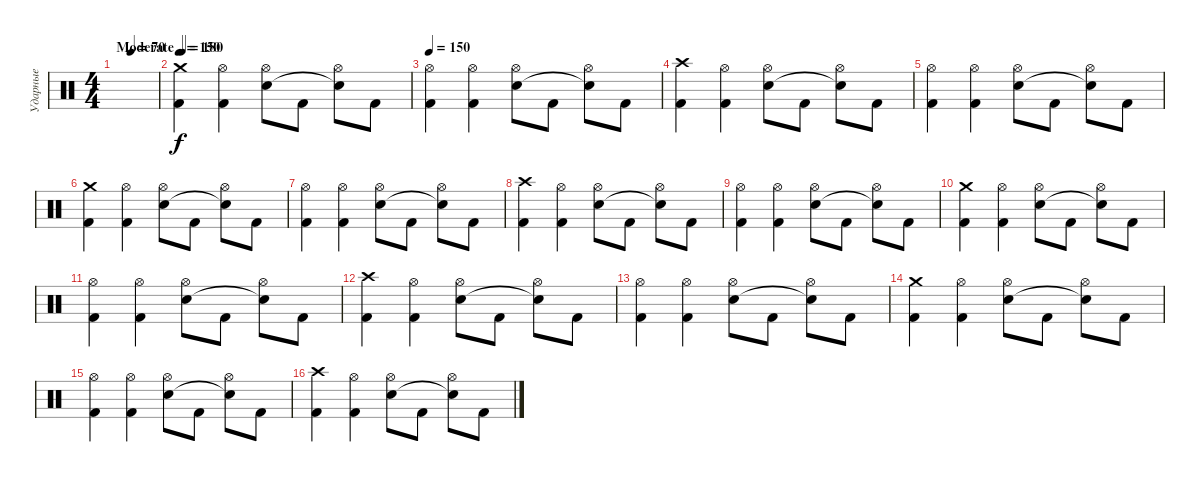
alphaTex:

\track ("Ударные" "Ударные") {instrument percussion}
\staff {score}
\articulation defaults
\ts (4 4)
\tempo (180 "Moderate")
\tempo (70 0.375)
\tempo (180 "Moderate")
\clef neutral
\ks c
|
\tempo 150
("Crash medium (hit)" "Kick (hit) 2").4 ("Hi-Hat (open)" "Kick (hit) 2").4 ("Hi-Hat (open)" "Snare (hit) 2").8 "Kick (hit) 2".8 ("Hi-Hat (open)" "Snare (hit)"{t}).8 "Kick (hit) 2".8 |
\tempo 150
("Hi-Hat (open)" "Kick (hit) 2").4 ("Hi-Hat (open)" "Kick (hit) 2").4 ("Hi-Hat (open)" "Snare (hit) 2").8 "Kick (hit) 2".8 ("Hi-Hat (open)" "Snare (hit)"{t}).8 "Kick (hit) 2".8 |
("Crash high (hit)" "Kick (hit) 2").4 ("Hi-Hat (open)" "Kick (hit) 2").4 ("Hi-Hat (open)" "Snare (hit) 2").8 "Kick (hit) 2".8 ("Hi-Hat (open)" "Snare (hit)"{t}).8 "Kick (hit) 2".8 |
("Hi-Hat (open)" "Kick (hit) 2").4 ("Hi-Hat (open)" "Kick (hit) 2").4 ("Hi-Hat (open)" "Snare (hit) 2").8 "Kick (hit) 2".8 ("Hi-Hat (open)" "Snare (hit)"{t}).8 "Kick (hit) 2".8 |
("Crash medium (hit)" "Kick (hit) 2").4 ("Hi-Hat (open)" "Kick (hit) 2").4 ("Hi-Hat (open)" "Snare (hit) 2").8 "Kick (hit) 2".8 ("Hi-Hat (open)" "Snare (hit)"{t}).8 "Kick (hit) 2".8 |
("Hi-Hat (open)" "Kick (hit) 2").4 ("Hi-Hat (open)" "Kick (hit) 2").4 ("Hi-Hat (open)" "Snare (hit) 2").8 "Kick (hit) 2".8 ("Hi-Hat (open)" "Snare (hit)"{t}).8 "Kick (hit) 2".8 |
("Crash high (hit)" "Kick (hit) 2").4 ("Hi-Hat (open)" "Kick (hit) 2").4 ("Hi-Hat (open)" "Snare (hit) 2").8 "Kick (hit) 2".8 ("Hi-Hat (open)" "Snare (hit)"{t}).8 "Kick (hit) 2".8 |
("Hi-Hat (open)" "Kick (hit) 2").4 ("Hi-Hat (open)" "Kick (hit) 2").4 ("Hi-Hat (open)" "Snare (hit) 2").8 "Kick (hit) 2".8 ("Hi-Hat (open)" "Snare (hit)"{t}).8 "Kick (hit) 2".8 |
("Crash medium (hit)" "Kick (hit) 2").4 ("Hi-Hat (open)" "Kick (hit) 2").4 ("Hi-Hat (open)" "Snare (hit) 2").8 "Kick (hit) 2".8 ("Hi-Hat (open)" "Snare (hit)"{t}).8 "Kick (hit) 2".8 |
("Hi-Hat (open)" "Kick (hit) 2").4 ("Hi-Hat (open)" "Kick (hit) 2").4 ("Hi-Hat (open)" "Snare (hit) 2").8 "Kick (hit) 2".8 ("Hi-Hat (open)" "Snare (hit)"{t}).8 "Kick (hit) 2".8 |
("Crash high (hit)" "Kick (hit) 2").4 ("Hi-Hat (open)" "Kick (hit) 2").4 ("Hi-Hat (open)" "Snare (hit) 2").8 "Kick (hit) 2".8 ("Hi-Hat (open)" "Snare (hit)"{t}).8 "Kick (hit) 2".8 |
("Hi-Hat (open)" "Kick (hit) 2").4 ("Hi-Hat (open)" "Kick (hit) 2").4 ("Hi-Hat (open)" "Snare (hit) 2").8 "Kick (hit) 2".8 ("Hi-Hat (open)" "Snare (hit)"{t}).8 "Kick (hit) 2".8 |
("Crash medium (hit)" "Kick (hit) 2").4 ("Hi-Hat (open)" "Kick (hit) 2").4 ("Hi-Hat (open)" "Snare (hit) 2").8 "Kick (hit) 2".8 ("Hi-Hat (open)" "Snare (hit)"{t}).8 "Kick (hit) 2".8 |
("Hi-Hat (open)" "Kick (hit) 2").4 ("Hi-Hat (open)" "Kick (hit) 2").4 ("Hi-Hat (open)" "Snare (hit) 2").8 "Kick (hit) 2".8 ("Hi-Hat (open)" "Snare (hit)"{t}).8 "Kick (hit) 2".8 |
("Crash high (hit)" "Kick (hit) 2").4 ("Hi-Hat (open)" "Kick (hit) 2").4 ("Hi-Hat (open)" "Snare (hit) 2").8 "Kick (hit) 2".8 ("Hi-Hat (open)" "Snare (hit)"{t}).8 "Kick (hit) 2".8
